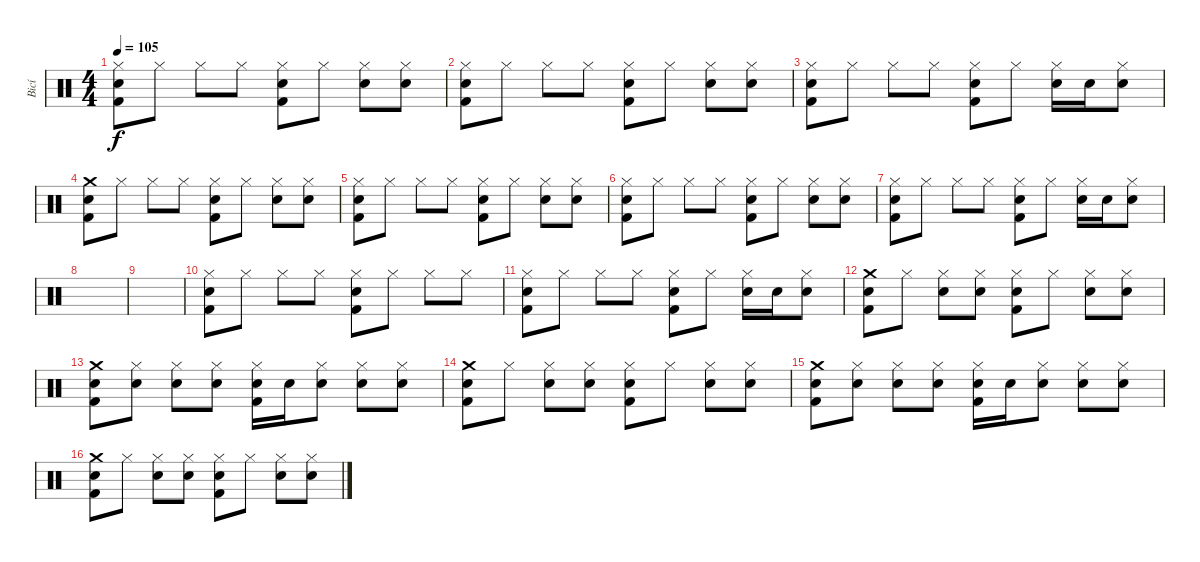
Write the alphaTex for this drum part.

\track ("Bicí" "Bicí") {instrument percussion}
\staff {score}
\articulation defaults
\ts (4 4)
\tempo 105
\clef neutral
\ks c
("Hi-Hat (closed)" "Electric Snare (hit)" "Kick (hit) 2").8{dy f} "Hi-Hat (closed)".8 "Hi-Hat (closed)".8 "Hi-Hat (closed)".8 ("Hi-Hat (closed)" "Electric Snare (hit)" "Kick (hit) 2").8 "Hi-Hat (closed)".8 ("Hi-Hat (closed)" "Electric Snare (hit)").8 ("Hi-Hat (closed)" "Electric Snare (hit)").8 |
("Hi-Hat (closed)" "Electric Snare (hit)" "Kick (hit) 2").8 "Hi-Hat (closed)".8 "Hi-Hat (closed)".8 "Hi-Hat (closed)".8 ("Hi-Hat (closed)" "Electric Snare (hit)" "Kick (hit) 2").8 "Hi-Hat (closed)".8 ("Hi-Hat (closed)" "Electric Snare (hit)").8 ("Hi-Hat (closed)" "Electric Snare (hit)").8 |
("Hi-Hat (closed)" "Electric Snare (hit)" "Kick (hit) 2").8 "Hi-Hat (closed)".8 "Hi-Hat (closed)".8 "Hi-Hat (closed)".8 ("Hi-Hat (closed)" "Electric Snare (hit)" "Kick (hit) 2").8 "Hi-Hat (closed)".8 ("Hi-Hat (closed)" "Electric Snare (hit)").16 "Electric Snare (hit)".16 ("Hi-Hat (closed)" "Electric Snare (hit)").8 |
("Crash medium (hit)" "Electric Snare (hit)" "Kick (hit) 2").8 "Hi-Hat (closed)".8 "Hi-Hat (closed)".8 "Hi-Hat (closed)".8 ("Hi-Hat (closed)" "Electric Snare (hit)" "Kick (hit) 2").8 "Hi-Hat (closed)".8 ("Hi-Hat (closed)" "Electric Snare (hit)").8 ("Hi-Hat (closed)" "Electric Snare (hit)").8 |
("Hi-Hat (closed)" "Electric Snare (hit)" "Kick (hit) 2").8 "Hi-Hat (closed)".8 "Hi-Hat (closed)".8 "Hi-Hat (closed)".8 ("Hi-Hat (closed)" "Electric Snare (hit)" "Kick (hit) 2").8 "Hi-Hat (closed)".8 ("Hi-Hat (closed)" "Electric Snare (hit)").8 ("Hi-Hat (closed)" "Electric Snare (hit)").8 |
("Hi-Hat (closed)" "Electric Snare (hit)" "Kick (hit) 2").8 "Hi-Hat (closed)".8 "Hi-Hat (closed)".8 "Hi-Hat (closed)".8 ("Hi-Hat (closed)" "Electric Snare (hit)" "Kick (hit) 2").8 "Hi-Hat (closed)".8 ("Hi-Hat (closed)" "Electric Snare (hit)").8 ("Hi-Hat (closed)" "Electric Snare (hit)").8 |
("Hi-Hat (closed)" "Electric Snare (hit)" "Kick (hit) 2").8 "Hi-Hat (closed)".8 "Hi-Hat (closed)".8 "Hi-Hat (closed)".8 ("Hi-Hat (closed)" "Electric Snare (hit)" "Kick (hit) 2").8 "Hi-Hat (closed)".8 ("Hi-Hat (closed)" "Electric Snare (hit)").16 "Electric Snare (hit)".16 ("Hi-Hat (closed)" "Electric Snare (hit)").8 |
|
|
("Hi-Hat (closed)" "Electric Snare (hit)" "Kick (hit) 2").8 "Hi-Hat (closed)".8 "Hi-Hat (closed)".8 "Hi-Hat (closed)".8 ("Hi-Hat (closed)" "Electric Snare (hit)" "Kick (hit) 2").8 "Hi-Hat (closed)".8 "Hi-Hat (closed)".8 "Hi-Hat (closed)".8 |
("Hi-Hat (closed)" "Electric Snare (hit)" "Kick (hit) 2").8 "Hi-Hat (closed)".8 "Hi-Hat (closed)".8 "Hi-Hat (closed)".8 ("Hi-Hat (closed)" "Electric Snare (hit)" "Kick (hit) 2").8 "Hi-Hat (closed)".8 ("Hi-Hat (closed)" "Electric Snare (hit)").16 "Electric Snare (hit)".16 ("Hi-Hat (closed)" "Electric Snare (hit)").8 |
("Crash medium (hit)" "Electric Snare (hit)" "Kick (hit) 2").8 "Hi-Hat (closed)".8 ("Hi-Hat (closed)" "Electric Snare (hit)").8 ("Hi-Hat (closed)" "Electric Snare (hit)").8 ("Hi-Hat (closed)" "Electric Snare (hit)" "Kick (hit) 2").8 "Hi-Hat (closed)".8 ("Hi-Hat (closed)" "Electric Snare (hit)").8 ("Hi-Hat (closed)" "Electric Snare (hit)").8 |
("Crash medium (hit)" "Electric Snare (hit)" "Kick (hit) 2").8 ("Hi-Hat (closed)" "Electric Snare (hit)").8 ("Hi-Hat (closed)" "Electric Snare (hit)").8 ("Hi-Hat (closed)" "Electric Snare (hit)").8 ("Hi-Hat (closed)" "Electric Snare (hit)" "Kick (hit) 2").16 "Electric Snare (hit)".16 ("Hi-Hat (closed)" "Electric Snare (hit)").8 ("Hi-Hat (closed)" "Electric Snare (hit)").8 ("Hi-Hat (closed)" "Electric Snare (hit)").8 |
("Crash medium (hit)" "Electric Snare (hit)" "Kick (hit) 2").8 "Hi-Hat (closed)".8 ("Hi-Hat (closed)" "Electric Snare (hit)").8 ("Hi-Hat (closed)" "Electric Snare (hit)").8 ("Hi-Hat (closed)" "Electric Snare (hit)" "Kick (hit) 2").8 "Hi-Hat (closed)".8 ("Hi-Hat (closed)" "Electric Snare (hit)").8 ("Hi-Hat (closed)" "Electric Snare (hit)").8 |
("Crash medium (hit)" "Electric Snare (hit)" "Kick (hit) 2").8 ("Hi-Hat (closed)" "Electric Snare (hit)").8 ("Hi-Hat (closed)" "Electric Snare (hit)").8 ("Hi-Hat (closed)" "Electric Snare (hit)").8 ("Hi-Hat (closed)" "Electric Snare (hit)" "Kick (hit) 2").16 "Electric Snare (hit)".16 ("Hi-Hat (closed)" "Electric Snare (hit)").8 ("Hi-Hat (closed)" "Electric Snare (hit)").8 ("Hi-Hat (closed)" "Electric Snare (hit)").8 |
("Crash medium (hit)" "Electric Snare (hit)" "Kick (hit) 2").8 "Hi-Hat (closed)".8 ("Hi-Hat (closed)" "Electric Snare (hit)").8 ("Hi-Hat (closed)" "Electric Snare (hit)").8 ("Hi-Hat (closed)" "Electric Snare (hit)" "Kick (hit) 2").8 "Hi-Hat (closed)".8 ("Hi-Hat (closed)" "Electric Snare (hit)").8 ("Hi-Hat (closed)" "Electric Snare (hit)").8
